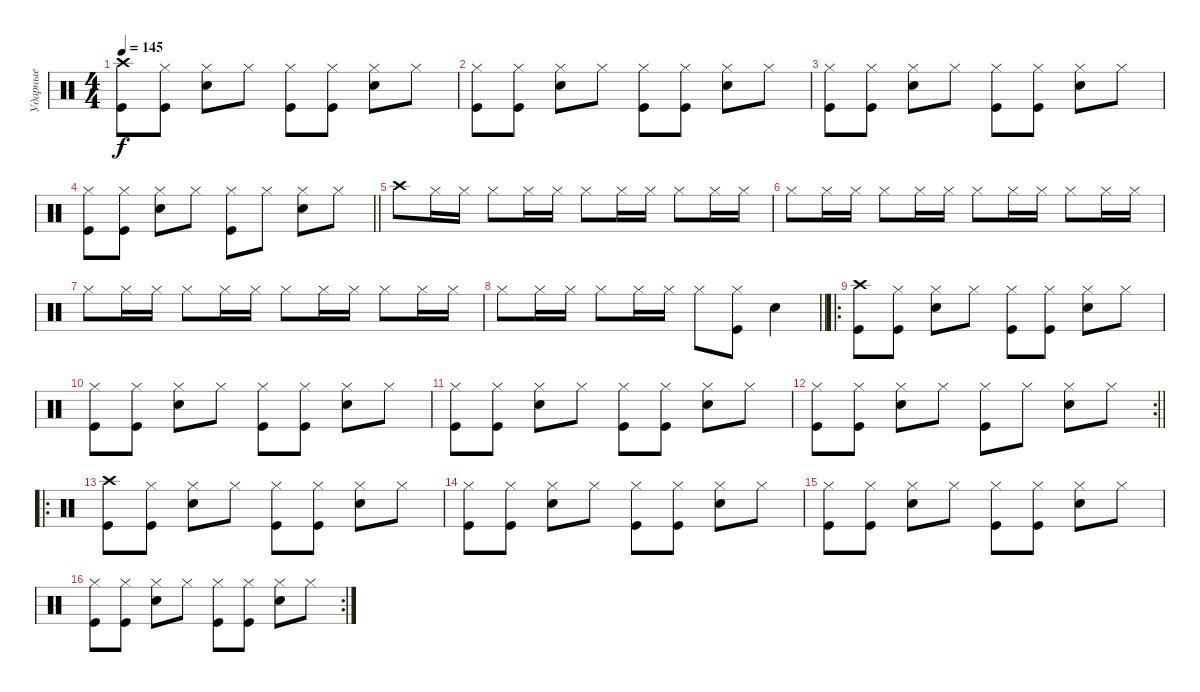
\track ("Ударные" "Ударные") {instrument percussion}
\staff {score}
\articulation defaults
\ts (4 4)
\tempo 145
\clef neutral
\ks c
("Crash high (hit)" "Kick (hit)").8{dy f} ("Hi-Hat (closed)" "Kick (hit)").8 ("Hi-Hat (closed)" "Snare (hit) 2").8 "Hi-Hat (closed)".8 ("Hi-Hat (closed)" "Kick (hit)").8 ("Hi-Hat (closed)" "Kick (hit)").8 ("Hi-Hat (closed)" "Snare (hit) 2").8 "Hi-Hat (closed)".8 |
("Hi-Hat (closed)" "Kick (hit)").8 ("Hi-Hat (closed)" "Kick (hit)").8 ("Hi-Hat (closed)" "Snare (hit) 2").8 "Hi-Hat (closed)".8 ("Hi-Hat (closed)" "Kick (hit)").8 ("Hi-Hat (closed)" "Kick (hit)").8 ("Hi-Hat (closed)" "Snare (hit) 2").8 "Hi-Hat (closed)".8 |
("Hi-Hat (closed)" "Kick (hit)").8 ("Hi-Hat (closed)" "Kick (hit)").8 ("Hi-Hat (closed)" "Snare (hit) 2").8 "Hi-Hat (closed)".8 ("Hi-Hat (closed)" "Kick (hit)").8 ("Hi-Hat (closed)" "Kick (hit)").8 ("Hi-Hat (closed)" "Snare (hit) 2").8 "Hi-Hat (closed)".8 |
\barLineRight lightlight
("Hi-Hat (closed)" "Kick (hit)").8 ("Hi-Hat (closed)" "Kick (hit)").8 ("Hi-Hat (closed)" "Snare (hit) 2").8 "Hi-Hat (closed)".8 ("Hi-Hat (closed)" "Kick (hit)").8 "Hi-Hat (closed)".8 ("Hi-Hat (closed)" "Snare (hit) 2").8 "Hi-Hat (closed)".8 |
"Crash high (hit)".8 "Hi-Hat (closed)".16 "Hi-Hat (closed)".16 "Hi-Hat (closed)".8 "Hi-Hat (closed)".16 "Hi-Hat (closed)".16 "Hi-Hat (closed)".8 "Hi-Hat (closed)".16 "Hi-Hat (closed)".16 "Hi-Hat (closed)".8 "Hi-Hat (closed)".16 "Hi-Hat (closed)".16 |
"Hi-Hat (closed)".8 "Hi-Hat (closed)".16 "Hi-Hat (closed)".16 "Hi-Hat (closed)".8 "Hi-Hat (closed)".16 "Hi-Hat (closed)".16 "Hi-Hat (closed)".8 "Hi-Hat (closed)".16 "Hi-Hat (closed)".16 "Hi-Hat (closed)".8 "Hi-Hat (closed)".16 "Hi-Hat (closed)".16 |
"Hi-Hat (closed)".8 "Hi-Hat (closed)".16 "Hi-Hat (closed)".16 "Hi-Hat (closed)".8 "Hi-Hat (closed)".16 "Hi-Hat (closed)".16 "Hi-Hat (closed)".8 "Hi-Hat (closed)".16 "Hi-Hat (closed)".16 "Hi-Hat (closed)".8 "Hi-Hat (closed)".16 "Hi-Hat (closed)".16 |
\barLineRight lightlight "Hi-Hat (closed)".8 "Hi-Hat (closed)".16 "Hi-Hat (closed)".16 "Hi-Hat (closed)".8 "Hi-Hat (closed)".16 "Hi-Hat (closed)".16 "Hi-Hat (closed)".8
("Kick (hit)" "Hi-Hat (closed)").8 "Snare (hit) 2".4 |
\ro
("Crash high (hit)" "Kick (hit)").8 ("Hi-Hat (closed)" "Kick (hit)").8 ("Hi-Hat (closed)" "Snare (hit) 2").8 "Hi-Hat (closed)".8 ("Hi-Hat (closed)" "Kick (hit)").8 ("Hi-Hat (closed)" "Kick (hit)").8 ("Hi-Hat (closed)" "Snare (hit) 2").8 "Hi-Hat (closed)".8 |
("Hi-Hat (closed)" "Kick (hit)").8 ("Hi-Hat (closed)" "Kick (hit)").8 ("Hi-Hat (closed)" "Snare (hit) 2").8 "Hi-Hat (closed)".8 ("Hi-Hat (closed)" "Kick (hit)").8 ("Hi-Hat (closed)" "Kick (hit)").8 ("Hi-Hat (closed)" "Snare (hit) 2").8 "Hi-Hat (closed)".8 |
("Hi-Hat (closed)" "Kick (hit)").8 ("Hi-Hat (closed)" "Kick (hit)").8 ("Hi-Hat (closed)" "Snare (hit) 2").8 "Hi-Hat (closed)".8 ("Hi-Hat (closed)" "Kick (hit)").8 ("Hi-Hat (closed)" "Kick (hit)").8 ("Hi-Hat (closed)" "Snare (hit) 2").8 "Hi-Hat (closed)".8 |
\rc 2
\barLineRight lightlight
("Hi-Hat (closed)" "Kick (hit)").8 ("Hi-Hat (closed)" "Kick (hit)").8 ("Hi-Hat (closed)" "Snare (hit) 2").8 "Hi-Hat (closed)".8 ("Hi-Hat (closed)" "Kick (hit)").8 "Hi-Hat (closed)".8 ("Hi-Hat (closed)" "Snare (hit) 2").8 "Hi-Hat (closed)".8 |
\ro
("Crash high (hit)" "Kick (hit)").8 ("Hi-Hat (closed)" "Kick (hit)").8 ("Hi-Hat (closed)" "Snare (hit) 2").8 "Hi-Hat (closed)".8 ("Hi-Hat (closed)" "Kick (hit)").8 ("Hi-Hat (closed)" "Kick (hit)").8 ("Hi-Hat (closed)" "Snare (hit) 2").8 "Hi-Hat (closed)".8 |
("Hi-Hat (closed)" "Kick (hit)").8 ("Hi-Hat (closed)" "Kick (hit)").8 ("Hi-Hat (closed)" "Snare (hit) 2").8 "Hi-Hat (closed)".8 ("Hi-Hat (closed)" "Kick (hit)").8 ("Hi-Hat (closed)" "Kick (hit)").8 ("Hi-Hat (closed)" "Snare (hit) 2").8 "Hi-Hat (closed)".8 |
("Hi-Hat (closed)" "Kick (hit)").8 ("Hi-Hat (closed)" "Kick (hit)").8 ("Hi-Hat (closed)" "Snare (hit) 2").8 "Hi-Hat (closed)".8 ("Hi-Hat (closed)" "Kick (hit)").8 ("Hi-Hat (closed)" "Kick (hit)").8 ("Hi-Hat (closed)" "Snare (hit) 2").8 "Hi-Hat (closed)".8 |
\rc 2
("Hi-Hat (closed)" "Kick (hit)").8 ("Hi-Hat (closed)" "Kick (hit)").8 ("Hi-Hat (closed)" "Snare (hit) 2").8 "Hi-Hat (closed)".8 ("Hi-Hat (closed)" "Kick (hit)").8 ("Hi-Hat (closed)" "Kick (hit)").8 ("Hi-Hat (closed)" "Snare (hit) 2").8 "Hi-Hat (closed)".8
